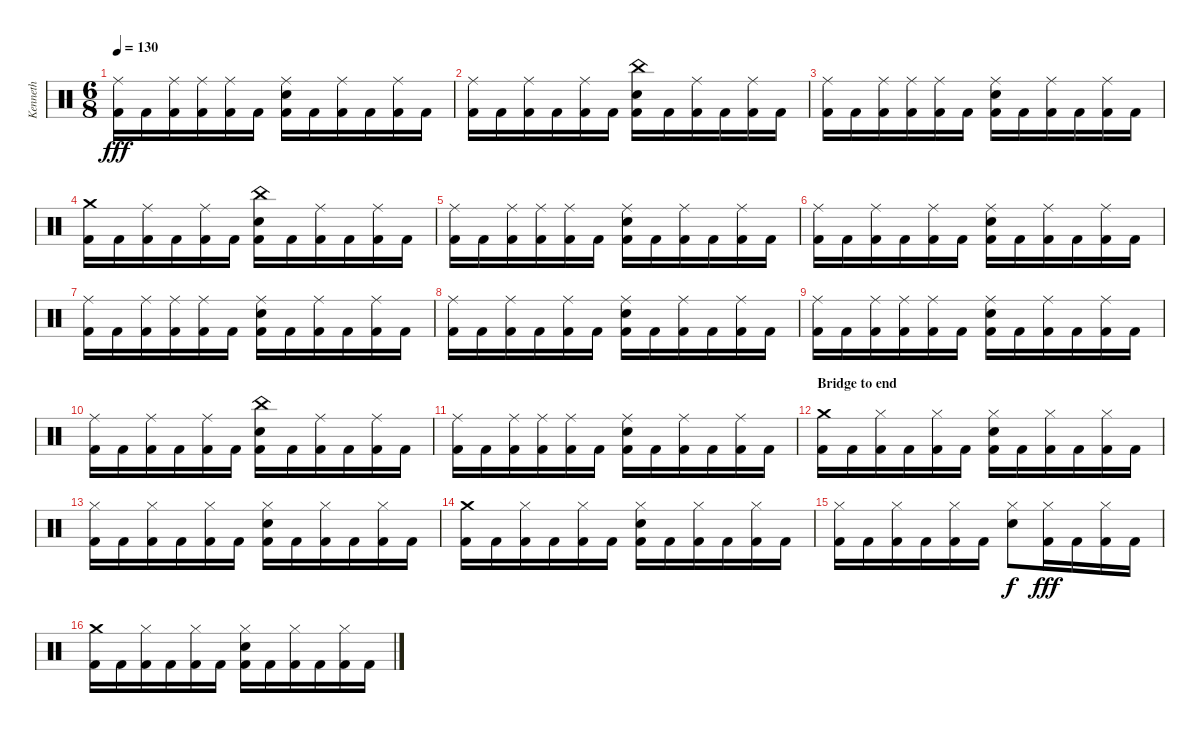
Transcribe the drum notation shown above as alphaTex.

\track ("Kenneth" "Kenneth") {instrument percussion}
\staff {score}
\articulation defaults
\ts (6 8)
\tempo 130
\clef neutral
\ks c
("Ride (middle)" "Kick (hit) 2").16{dy fff} "Kick (hit) 2".16 ("Ride (middle)" "Kick (hit) 2").16 ("Ride (middle)" "Kick (hit) 2").16 ("Ride (middle)" "Kick (hit) 2").16 "Kick (hit) 2".16 ("Ride (middle)" "Electric Snare (hit)" "Kick (hit) 2").16 "Kick (hit) 2".16 ("Ride (middle)" "Kick (hit) 2").16 "Kick (hit) 2".16 ("Ride (middle)" "Kick (hit) 2").16 "Kick (hit) 2".16 |
("Ride (middle)" "Kick (hit) 2").16 "Kick (hit) 2".16 ("Ride (middle)" "Kick (hit) 2").16 "Kick (hit) 2".16 ("Ride (middle)" "Kick (hit) 2").16 "Kick (hit) 2".16 ("China (hit)" "Electric Snare (hit)" "Kick (hit) 2").16 "Kick (hit) 2".16 ("Ride (middle)" "Kick (hit) 2").16 "Kick (hit) 2".16 ("Ride (middle)" "Kick (hit) 2").16 "Kick (hit) 2".16 |
("Ride (middle)" "Kick (hit) 2").16 "Kick (hit) 2".16 ("Ride (middle)" "Kick (hit) 2").16 ("Ride (middle)" "Kick (hit) 2").16 ("Ride (middle)" "Kick (hit) 2").16 "Kick (hit) 2".16 ("Ride (middle)" "Electric Snare (hit)" "Kick (hit) 2").16 "Kick (hit) 2".16 ("Ride (middle)" "Kick (hit) 2").16 "Kick (hit) 2".16 ("Ride (middle)" "Kick (hit) 2").16 "Kick (hit) 2".16 |
("Crash medium (hit)" "Kick (hit) 2").16 "Kick (hit) 2".16 ("Ride (middle)" "Kick (hit) 2").16 "Kick (hit) 2".16 ("Ride (middle)" "Kick (hit) 2").16 "Kick (hit) 2".16 ("China (hit)" "Electric Snare (hit)" "Kick (hit) 2").16 "Kick (hit) 2".16 ("Ride (middle)" "Kick (hit) 2").16 "Kick (hit) 2".16 ("Ride (middle)" "Kick (hit) 2").16 "Kick (hit) 2".16 |
("Ride (middle)" "Kick (hit) 2").16 "Kick (hit) 2".16 ("Ride (middle)" "Kick (hit) 2").16 ("Ride (middle)" "Kick (hit) 2").16 ("Ride (middle)" "Kick (hit) 2").16 "Kick (hit) 2".16 ("Ride (middle)" "Electric Snare (hit)" "Kick (hit) 2").16 "Kick (hit) 2".16 ("Ride (middle)" "Kick (hit) 2").16 "Kick (hit) 2".16 ("Ride (middle)" "Kick (hit) 2").16 "Kick (hit) 2".16 |
("Ride (middle)" "Kick (hit) 2").16 "Kick (hit) 2".16 ("Ride (middle)" "Kick (hit) 2").16 "Kick (hit) 2".16 ("Ride (middle)" "Kick (hit) 2").16 "Kick (hit) 2".16 ("Ride (middle)" "Electric Snare (hit)" "Kick (hit) 2").16 "Kick (hit) 2".16 ("Ride (middle)" "Kick (hit) 2").16 "Kick (hit) 2".16 ("Ride (middle)" "Kick (hit) 2").16 "Kick (hit) 2".16 |
("Ride (middle)" "Kick (hit) 2").16 "Kick (hit) 2".16 ("Ride (middle)" "Kick (hit) 2").16 ("Ride (middle)" "Kick (hit) 2").16 ("Ride (middle)" "Kick (hit) 2").16 "Kick (hit) 2".16 ("Ride (middle)" "Electric Snare (hit)" "Kick (hit) 2").16 "Kick (hit) 2".16 ("Ride (middle)" "Kick (hit) 2").16 "Kick (hit) 2".16 ("Ride (middle)" "Kick (hit) 2").16 "Kick (hit) 2".16 |
("Ride (middle)" "Kick (hit) 2").16 "Kick (hit) 2".16 ("Ride (middle)" "Kick (hit) 2").16 "Kick (hit) 2".16 ("Ride (middle)" "Kick (hit) 2").16 "Kick (hit) 2".16 ("Ride (middle)" "Electric Snare (hit)" "Kick (hit) 2").16 "Kick (hit) 2".16 ("Ride (middle)" "Kick (hit) 2").16 "Kick (hit) 2".16 ("Ride (middle)" "Kick (hit) 2").16 "Kick (hit) 2".16 |
("Ride (middle)" "Kick (hit) 2").16 "Kick (hit) 2".16 ("Ride (middle)" "Kick (hit) 2").16 ("Ride (middle)" "Kick (hit) 2").16 ("Ride (middle)" "Kick (hit) 2").16 "Kick (hit) 2".16 ("Ride (middle)" "Electric Snare (hit)" "Kick (hit) 2").16 "Kick (hit) 2".16 ("Ride (middle)" "Kick (hit) 2").16 "Kick (hit) 2".16 ("Ride (middle)" "Kick (hit) 2").16 "Kick (hit) 2".16 |
("Ride (middle)" "Kick (hit) 2").16 "Kick (hit) 2".16 ("Ride (middle)" "Kick (hit) 2").16 "Kick (hit) 2".16 ("Ride (middle)" "Kick (hit) 2").16 "Kick (hit) 2".16 ("China (hit)" "Electric Snare (hit)" "Kick (hit) 2").16 "Kick (hit) 2".16 ("Ride (middle)" "Kick (hit) 2").16 "Kick (hit) 2".16 ("Ride (middle)" "Kick (hit) 2").16 "Kick (hit) 2".16 |
("Ride (middle)" "Kick (hit) 2").16 "Kick (hit) 2".16 ("Ride (middle)" "Kick (hit) 2").16 ("Ride (middle)" "Kick (hit) 2").16 ("Ride (middle)" "Kick (hit) 2").16 "Kick (hit) 2".16 ("Ride (middle)" "Electric Snare (hit)" "Kick (hit) 2").16 "Kick (hit) 2".16 ("Ride (middle)" "Kick (hit) 2").16 "Kick (hit) 2".16 ("Ride (middle)" "Kick (hit) 2").16 "Kick (hit) 2".16 |
\section ("" "Bridge to end")
("Crash medium (hit)" "Kick (hit) 2").16 "Kick (hit) 2".16 ("Hi-Hat (closed)" "Kick (hit) 2").16 "Kick (hit) 2".16 ("Hi-Hat (closed)" "Kick (hit) 2").16 "Kick (hit) 2".16 ("Hi-Hat (closed)" "Electric Snare (hit)" "Kick (hit) 2").16 "Kick (hit) 2".16 ("Hi-Hat (closed)" "Kick (hit) 2").16 "Kick (hit) 2".16 ("Hi-Hat (closed)" "Kick (hit) 2").16 "Kick (hit) 2".16 |
("Hi-Hat (closed)" "Kick (hit) 2").16 "Kick (hit) 2".16 ("Hi-Hat (closed)" "Kick (hit) 2").16 "Kick (hit) 2".16 ("Hi-Hat (closed)" "Kick (hit) 2").16 "Kick (hit) 2".16 ("Hi-Hat (closed)" "Electric Snare (hit)" "Kick (hit) 2").16 "Kick (hit) 2".16 ("Hi-Hat (closed)" "Kick (hit) 2").16 "Kick (hit) 2".16 ("Hi-Hat (closed)" "Kick (hit) 2").16 "Kick (hit) 2".16 |
("Crash medium (hit)" "Kick (hit) 2").16 "Kick (hit) 2".16 ("Hi-Hat (closed)" "Kick (hit) 2").16 "Kick (hit) 2".16 ("Hi-Hat (closed)" "Kick (hit) 2").16 "Kick (hit) 2".16 ("Hi-Hat (closed)" "Electric Snare (hit)" "Kick (hit) 2").16 "Kick (hit) 2".16 ("Hi-Hat (closed)" "Kick (hit) 2").16 "Kick (hit) 2".16 ("Hi-Hat (closed)" "Kick (hit) 2").16 "Kick (hit) 2".16 |
("Hi-Hat (closed)" "Kick (hit) 2").16 "Kick (hit) 2".16 ("Hi-Hat (closed)" "Kick (hit) 2").16 "Kick (hit) 2".16 ("Hi-Hat (closed)" "Kick (hit) 2").16 "Kick (hit) 2".16 ("Hi-Hat (closed)" "Electric Snare (hit)").8{dy f} ("Hi-Hat (closed)" "Kick (hit) 2").16{dy fff} "Kick (hit) 2".16 ("Hi-Hat (closed)" "Kick (hit) 2").16 "Kick (hit) 2".16 |
("Crash medium (hit)" "Kick (hit) 2").16 "Kick (hit) 2".16 ("Hi-Hat (closed)" "Kick (hit) 2").16 "Kick (hit) 2".16 ("Hi-Hat (closed)" "Kick (hit) 2").16 "Kick (hit) 2".16 ("Hi-Hat (closed)" "Electric Snare (hit)" "Kick (hit) 2").16 "Kick (hit) 2".16 ("Hi-Hat (closed)" "Kick (hit) 2").16 "Kick (hit) 2".16 ("Hi-Hat (closed)" "Kick (hit) 2").16 "Kick (hit) 2".16
